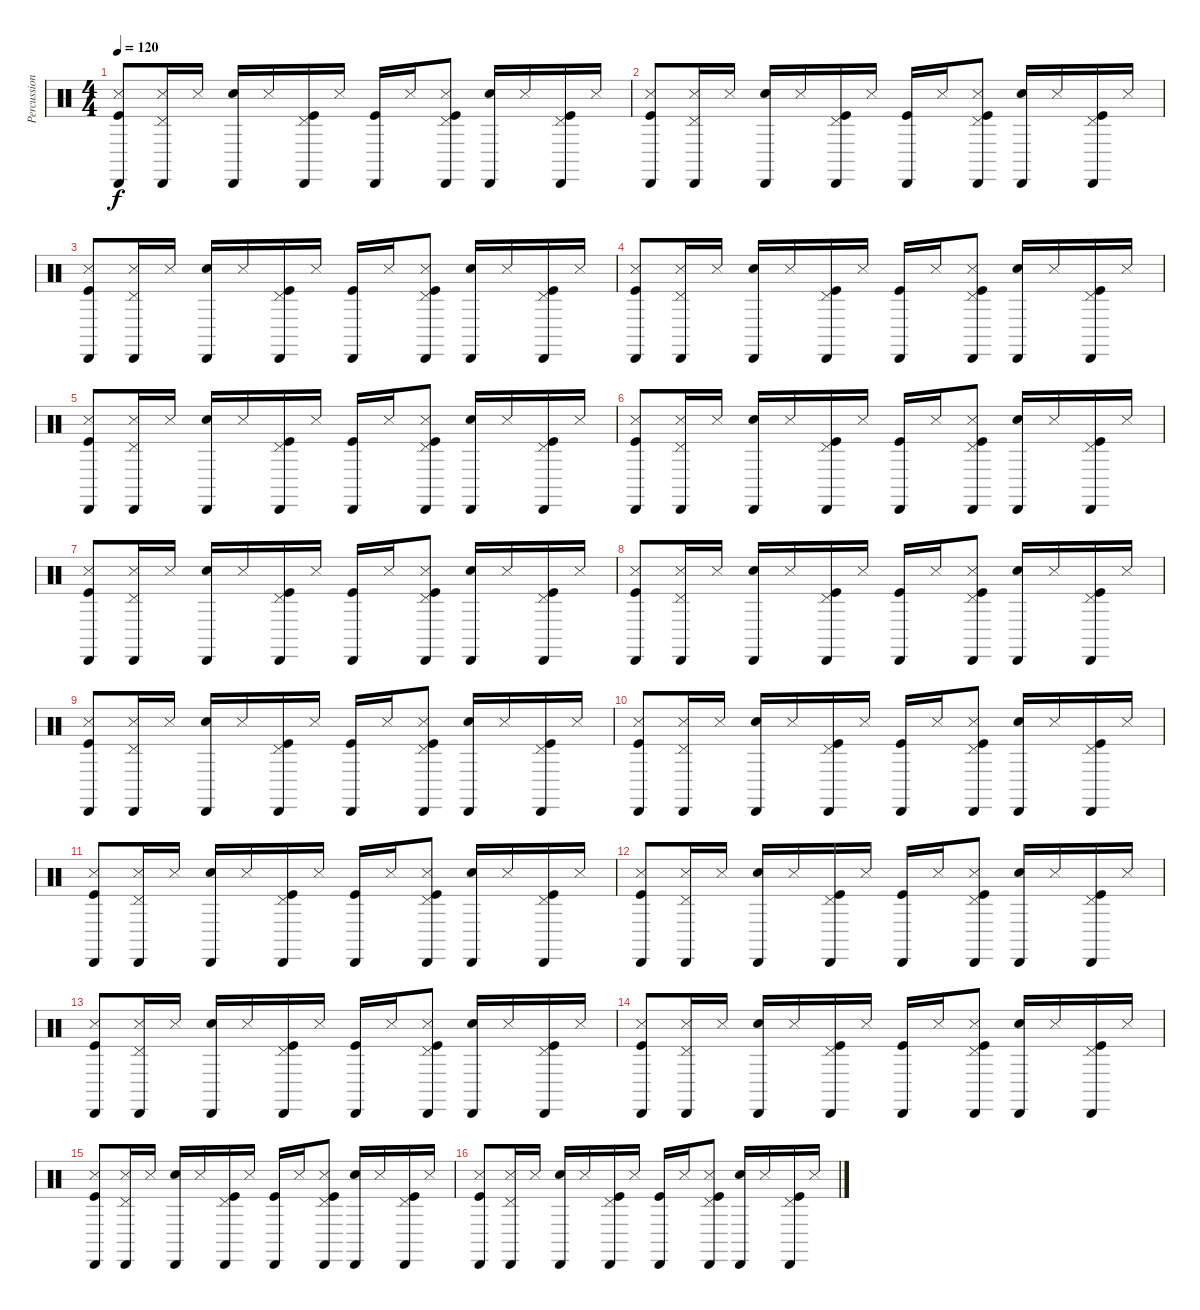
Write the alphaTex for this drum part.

\track ("Percussions" "Percussion") {instrument percussion}
\staff {score}
\articulation defaults
\ts (4 4)
\tempo 120
\clef neutral
\ks c
("Kick (hit)" "Cabasa (hit)" "Metronome (hit)").8{dy f} ("Cabasa (hit)" "Pedal Hi-Hat (hit)" "Metronome (hit)").16 "Metronome (hit)".16 ("Snare (hit) 2" "Cabasa (hit)").16 "Metronome (hit)".16 ("Kick (hit)" "Cabasa (hit)" "Pedal Hi-Hat (hit)").16 "Metronome (hit)".16 ("Kick (hit)" "Cabasa (hit)").16 "Metronome (hit)".16 ("Kick (hit)" "Cabasa (hit)" "Pedal Hi-Hat (hit)" "Metronome (hit)").8 ("Snare (hit) 2" "Cabasa (hit)").16 "Metronome (hit)".16 ("Kick (hit)" "Cabasa (hit)" "Pedal Hi-Hat (hit)").16 "Metronome (hit)".16 |
("Kick (hit)" "Cabasa (hit)" "Metronome (hit)").8 ("Cabasa (hit)" "Pedal Hi-Hat (hit)" "Metronome (hit)").16 "Metronome (hit)".16 ("Snare (hit) 2" "Cabasa (hit)").16 "Metronome (hit)".16 ("Kick (hit)" "Cabasa (hit)" "Pedal Hi-Hat (hit)").16 "Metronome (hit)".16 ("Kick (hit)" "Cabasa (hit)").16 "Metronome (hit)".16 ("Kick (hit)" "Cabasa (hit)" "Pedal Hi-Hat (hit)" "Metronome (hit)").8 ("Snare (hit) 2" "Cabasa (hit)").16 "Metronome (hit)".16 ("Kick (hit)" "Cabasa (hit)" "Pedal Hi-Hat (hit)").16 "Metronome (hit)".16 |
("Kick (hit)" "Cabasa (hit)" "Metronome (hit)").8 ("Cabasa (hit)" "Pedal Hi-Hat (hit)" "Metronome (hit)").16 "Metronome (hit)".16 ("Snare (hit) 2" "Cabasa (hit)").16 "Metronome (hit)".16 ("Kick (hit)" "Cabasa (hit)" "Pedal Hi-Hat (hit)").16 "Metronome (hit)".16 ("Kick (hit)" "Cabasa (hit)").16 "Metronome (hit)".16 ("Kick (hit)" "Cabasa (hit)" "Pedal Hi-Hat (hit)" "Metronome (hit)").8 ("Snare (hit) 2" "Cabasa (hit)").16 "Metronome (hit)".16 ("Kick (hit)" "Cabasa (hit)" "Pedal Hi-Hat (hit)").16 "Metronome (hit)".16 |
("Kick (hit)" "Cabasa (hit)" "Metronome (hit)").8 ("Cabasa (hit)" "Pedal Hi-Hat (hit)" "Metronome (hit)").16 "Metronome (hit)".16 ("Snare (hit) 2" "Cabasa (hit)").16 "Metronome (hit)".16 ("Kick (hit)" "Cabasa (hit)" "Pedal Hi-Hat (hit)").16 "Metronome (hit)".16 ("Kick (hit)" "Cabasa (hit)").16 "Metronome (hit)".16 ("Kick (hit)" "Cabasa (hit)" "Pedal Hi-Hat (hit)" "Metronome (hit)").8 ("Snare (hit) 2" "Cabasa (hit)").16 "Metronome (hit)".16 ("Kick (hit)" "Cabasa (hit)" "Pedal Hi-Hat (hit)").16 "Metronome (hit)".16 |
("Kick (hit)" "Cabasa (hit)" "Metronome (hit)").8 ("Cabasa (hit)" "Pedal Hi-Hat (hit)" "Metronome (hit)").16 "Metronome (hit)".16 ("Snare (hit) 2" "Cabasa (hit)").16 "Metronome (hit)".16 ("Kick (hit)" "Cabasa (hit)" "Pedal Hi-Hat (hit)").16 "Metronome (hit)".16 ("Kick (hit)" "Cabasa (hit)").16 "Metronome (hit)".16 ("Kick (hit)" "Cabasa (hit)" "Pedal Hi-Hat (hit)" "Metronome (hit)").8 ("Snare (hit) 2" "Cabasa (hit)").16 "Metronome (hit)".16 ("Kick (hit)" "Cabasa (hit)" "Pedal Hi-Hat (hit)").16 "Metronome (hit)".16 |
("Kick (hit)" "Cabasa (hit)" "Metronome (hit)").8 ("Cabasa (hit)" "Pedal Hi-Hat (hit)" "Metronome (hit)").16 "Metronome (hit)".16 ("Snare (hit) 2" "Cabasa (hit)").16 "Metronome (hit)".16 ("Kick (hit)" "Cabasa (hit)" "Pedal Hi-Hat (hit)").16 "Metronome (hit)".16 ("Kick (hit)" "Cabasa (hit)").16 "Metronome (hit)".16 ("Kick (hit)" "Cabasa (hit)" "Pedal Hi-Hat (hit)" "Metronome (hit)").8 ("Snare (hit) 2" "Cabasa (hit)").16 "Metronome (hit)".16 ("Kick (hit)" "Cabasa (hit)" "Pedal Hi-Hat (hit)").16 "Metronome (hit)".16 |
("Kick (hit)" "Cabasa (hit)" "Metronome (hit)").8 ("Cabasa (hit)" "Pedal Hi-Hat (hit)" "Metronome (hit)").16 "Metronome (hit)".16 ("Snare (hit) 2" "Cabasa (hit)").16 "Metronome (hit)".16 ("Kick (hit)" "Cabasa (hit)" "Pedal Hi-Hat (hit)").16 "Metronome (hit)".16 ("Kick (hit)" "Cabasa (hit)").16 "Metronome (hit)".16 ("Kick (hit)" "Cabasa (hit)" "Pedal Hi-Hat (hit)" "Metronome (hit)").8 ("Snare (hit) 2" "Cabasa (hit)").16 "Metronome (hit)".16 ("Kick (hit)" "Cabasa (hit)" "Pedal Hi-Hat (hit)").16 "Metronome (hit)".16 |
("Kick (hit)" "Cabasa (hit)" "Metronome (hit)").8 ("Cabasa (hit)" "Pedal Hi-Hat (hit)" "Metronome (hit)").16 "Metronome (hit)".16 ("Snare (hit) 2" "Cabasa (hit)").16 "Metronome (hit)".16 ("Kick (hit)" "Cabasa (hit)" "Pedal Hi-Hat (hit)").16 "Metronome (hit)".16 ("Kick (hit)" "Cabasa (hit)").16 "Metronome (hit)".16 ("Kick (hit)" "Cabasa (hit)" "Pedal Hi-Hat (hit)" "Metronome (hit)").8 ("Snare (hit) 2" "Cabasa (hit)").16 "Metronome (hit)".16 ("Kick (hit)" "Cabasa (hit)" "Pedal Hi-Hat (hit)").16 "Metronome (hit)".16 |
("Kick (hit)" "Cabasa (hit)" "Metronome (hit)").8 ("Cabasa (hit)" "Pedal Hi-Hat (hit)" "Metronome (hit)").16 "Metronome (hit)".16 ("Snare (hit) 2" "Cabasa (hit)").16 "Metronome (hit)".16 ("Kick (hit)" "Cabasa (hit)" "Pedal Hi-Hat (hit)").16 "Metronome (hit)".16 ("Kick (hit)" "Cabasa (hit)").16 "Metronome (hit)".16 ("Kick (hit)" "Cabasa (hit)" "Pedal Hi-Hat (hit)" "Metronome (hit)").8 ("Snare (hit) 2" "Cabasa (hit)").16 "Metronome (hit)".16 ("Kick (hit)" "Cabasa (hit)" "Pedal Hi-Hat (hit)").16 "Metronome (hit)".16 |
("Kick (hit)" "Cabasa (hit)" "Metronome (hit)").8 ("Cabasa (hit)" "Pedal Hi-Hat (hit)" "Metronome (hit)").16 "Metronome (hit)".16 ("Snare (hit) 2" "Cabasa (hit)").16 "Metronome (hit)".16 ("Kick (hit)" "Cabasa (hit)" "Pedal Hi-Hat (hit)").16 "Metronome (hit)".16 ("Kick (hit)" "Cabasa (hit)").16 "Metronome (hit)".16 ("Kick (hit)" "Cabasa (hit)" "Pedal Hi-Hat (hit)" "Metronome (hit)").8 ("Snare (hit) 2" "Cabasa (hit)").16 "Metronome (hit)".16 ("Kick (hit)" "Cabasa (hit)" "Pedal Hi-Hat (hit)").16 "Metronome (hit)".16 |
("Kick (hit)" "Cabasa (hit)" "Metronome (hit)").8 ("Cabasa (hit)" "Pedal Hi-Hat (hit)" "Metronome (hit)").16 "Metronome (hit)".16 ("Snare (hit) 2" "Cabasa (hit)").16 "Metronome (hit)".16 ("Kick (hit)" "Cabasa (hit)" "Pedal Hi-Hat (hit)").16 "Metronome (hit)".16 ("Kick (hit)" "Cabasa (hit)").16 "Metronome (hit)".16 ("Kick (hit)" "Cabasa (hit)" "Pedal Hi-Hat (hit)" "Metronome (hit)").8 ("Snare (hit) 2" "Cabasa (hit)").16 "Metronome (hit)".16 ("Kick (hit)" "Cabasa (hit)" "Pedal Hi-Hat (hit)").16 "Metronome (hit)".16 |
("Kick (hit)" "Cabasa (hit)" "Metronome (hit)").8 ("Cabasa (hit)" "Pedal Hi-Hat (hit)" "Metronome (hit)").16 "Metronome (hit)".16 ("Snare (hit) 2" "Cabasa (hit)").16 "Metronome (hit)".16 ("Kick (hit)" "Cabasa (hit)" "Pedal Hi-Hat (hit)").16 "Metronome (hit)".16 ("Kick (hit)" "Cabasa (hit)").16 "Metronome (hit)".16 ("Kick (hit)" "Cabasa (hit)" "Pedal Hi-Hat (hit)" "Metronome (hit)").8 ("Snare (hit) 2" "Cabasa (hit)").16 "Metronome (hit)".16 ("Kick (hit)" "Cabasa (hit)" "Pedal Hi-Hat (hit)").16 "Metronome (hit)".16 |
("Kick (hit)" "Cabasa (hit)" "Metronome (hit)").8 ("Cabasa (hit)" "Pedal Hi-Hat (hit)" "Metronome (hit)").16 "Metronome (hit)".16 ("Snare (hit) 2" "Cabasa (hit)").16 "Metronome (hit)".16 ("Kick (hit)" "Cabasa (hit)" "Pedal Hi-Hat (hit)").16 "Metronome (hit)".16 ("Kick (hit)" "Cabasa (hit)").16 "Metronome (hit)".16 ("Kick (hit)" "Cabasa (hit)" "Pedal Hi-Hat (hit)" "Metronome (hit)").8 ("Snare (hit) 2" "Cabasa (hit)").16 "Metronome (hit)".16 ("Kick (hit)" "Cabasa (hit)" "Pedal Hi-Hat (hit)").16 "Metronome (hit)".16 |
("Kick (hit)" "Cabasa (hit)" "Metronome (hit)").8 ("Cabasa (hit)" "Pedal Hi-Hat (hit)" "Metronome (hit)").16 "Metronome (hit)".16 ("Snare (hit) 2" "Cabasa (hit)").16 "Metronome (hit)".16 ("Kick (hit)" "Cabasa (hit)" "Pedal Hi-Hat (hit)").16 "Metronome (hit)".16 ("Kick (hit)" "Cabasa (hit)").16 "Metronome (hit)".16 ("Kick (hit)" "Cabasa (hit)" "Pedal Hi-Hat (hit)" "Metronome (hit)").8 ("Snare (hit) 2" "Cabasa (hit)").16 "Metronome (hit)".16 ("Kick (hit)" "Cabasa (hit)" "Pedal Hi-Hat (hit)").16 "Metronome (hit)".16 |
("Kick (hit)" "Cabasa (hit)" "Metronome (hit)").8 ("Cabasa (hit)" "Pedal Hi-Hat (hit)" "Metronome (hit)").16 "Metronome (hit)".16 ("Snare (hit) 2" "Cabasa (hit)").16 "Metronome (hit)".16 ("Kick (hit)" "Cabasa (hit)" "Pedal Hi-Hat (hit)").16 "Metronome (hit)".16 ("Kick (hit)" "Cabasa (hit)").16 "Metronome (hit)".16 ("Kick (hit)" "Cabasa (hit)" "Pedal Hi-Hat (hit)" "Metronome (hit)").8 ("Snare (hit) 2" "Cabasa (hit)").16 "Metronome (hit)".16 ("Kick (hit)" "Cabasa (hit)" "Pedal Hi-Hat (hit)").16 "Metronome (hit)".16 |
("Kick (hit)" "Cabasa (hit)" "Metronome (hit)").8 ("Cabasa (hit)" "Pedal Hi-Hat (hit)" "Metronome (hit)").16 "Metronome (hit)".16 ("Snare (hit) 2" "Cabasa (hit)").16 "Metronome (hit)".16 ("Kick (hit)" "Cabasa (hit)" "Pedal Hi-Hat (hit)").16 "Metronome (hit)".16 ("Kick (hit)" "Cabasa (hit)").16 "Metronome (hit)".16 ("Kick (hit)" "Cabasa (hit)" "Pedal Hi-Hat (hit)" "Metronome (hit)").8 ("Snare (hit) 2" "Cabasa (hit)").16 "Metronome (hit)".16 ("Kick (hit)" "Cabasa (hit)" "Pedal Hi-Hat (hit)").16 "Metronome (hit)".16
